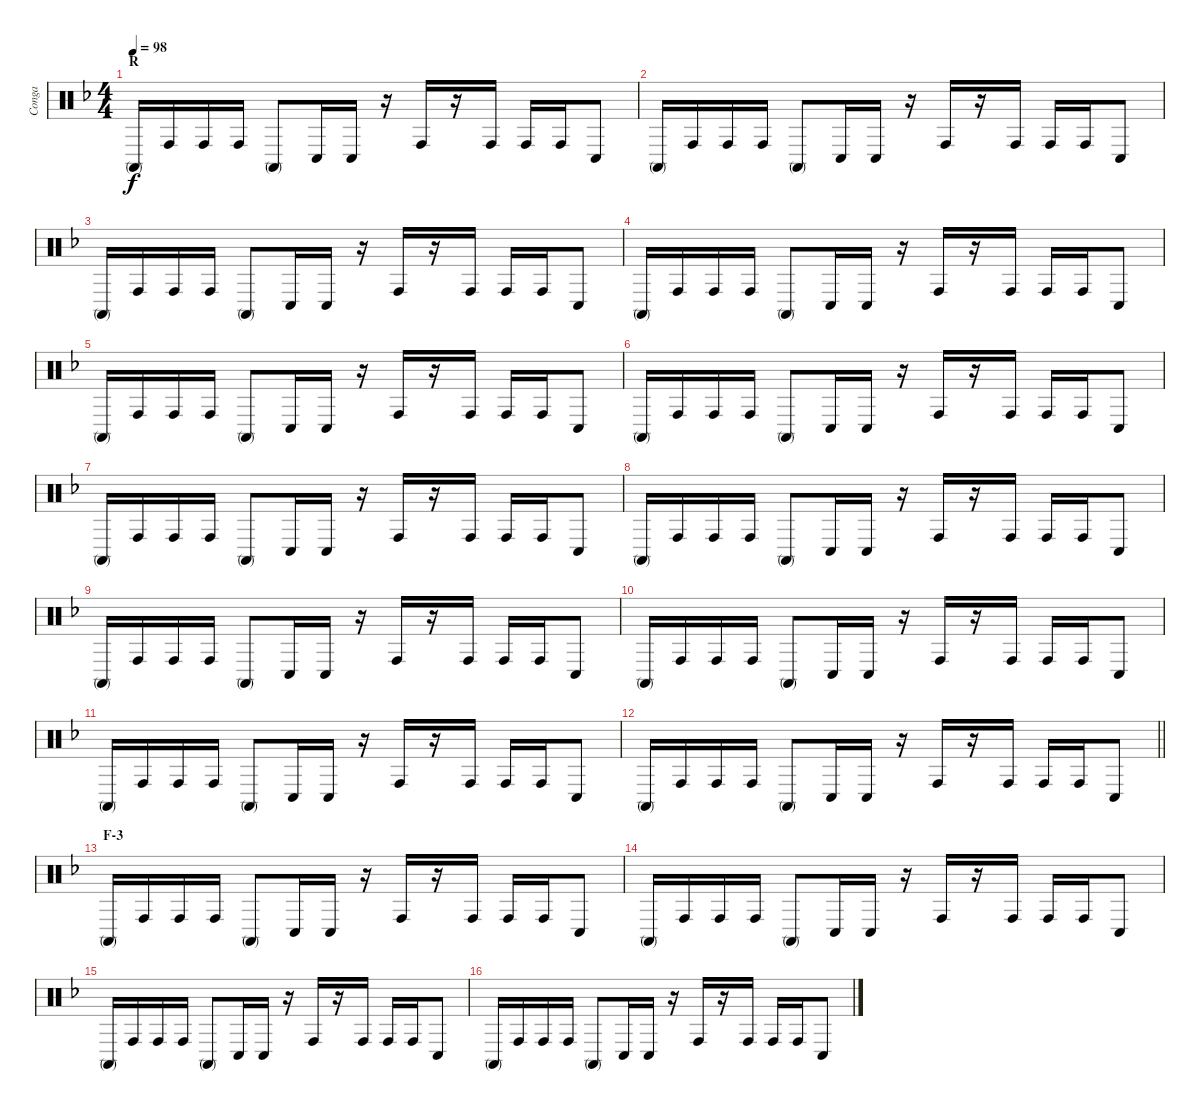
\track ("Conga" "Conga") {instrument percussion}
\staff {score}
\articulation defaults
\ts (4 4)
\section ("" "R")
\tempo 98
\clef neutral
\ks f "Conga high (mute)".16{dy f} "Conga high (hit)".16 "Conga high (hit)".16 "Conga high (hit)".16 "Conga high (mute)".8 "Conga low (hit)".16 "Conga low (hit)".16
r.16 "Conga high (hit)".16 r.16 "Conga high (hit)".16 "Conga high (hit)".16 "Conga high (hit)".16 "Conga low (hit)".8 |
"Conga high (mute)".16 "Conga high (hit)".16 "Conga high (hit)".16 "Conga high (hit)".16 "Conga high (mute)".8 "Conga low (hit)".16 "Conga low (hit)".16 r.16 "Conga high (hit)".16 r.16 "Conga high (hit)".16 "Conga high (hit)".16 "Conga high (hit)".16 "Conga low (hit)".8 |
"Conga high (mute)".16 "Conga high (hit)".16 "Conga high (hit)".16 "Conga high (hit)".16 "Conga high (mute)".8 "Conga low (hit)".16 "Conga low (hit)".16 r.16 "Conga high (hit)".16 r.16 "Conga high (hit)".16 "Conga high (hit)".16 "Conga high (hit)".16 "Conga low (hit)".8 |
"Conga high (mute)".16 "Conga high (hit)".16 "Conga high (hit)".16 "Conga high (hit)".16 "Conga high (mute)".8 "Conga low (hit)".16 "Conga low (hit)".16 r.16 "Conga high (hit)".16 r.16 "Conga high (hit)".16 "Conga high (hit)".16 "Conga high (hit)".16 "Conga low (hit)".8 |
"Conga high (mute)".16 "Conga high (hit)".16 "Conga high (hit)".16 "Conga high (hit)".16 "Conga high (mute)".8 "Conga low (hit)".16 "Conga low (hit)".16 r.16 "Conga high (hit)".16 r.16 "Conga high (hit)".16 "Conga high (hit)".16 "Conga high (hit)".16 "Conga low (hit)".8 |
"Conga high (mute)".16 "Conga high (hit)".16 "Conga high (hit)".16 "Conga high (hit)".16 "Conga high (mute)".8 "Conga low (hit)".16 "Conga low (hit)".16 r.16 "Conga high (hit)".16 r.16 "Conga high (hit)".16 "Conga high (hit)".16 "Conga high (hit)".16 "Conga low (hit)".8 |
"Conga high (mute)".16 "Conga high (hit)".16 "Conga high (hit)".16 "Conga high (hit)".16 "Conga high (mute)".8 "Conga low (hit)".16 "Conga low (hit)".16 r.16 "Conga high (hit)".16 r.16 "Conga high (hit)".16 "Conga high (hit)".16 "Conga high (hit)".16 "Conga low (hit)".8 |
"Conga high (mute)".16 "Conga high (hit)".16 "Conga high (hit)".16 "Conga high (hit)".16 "Conga high (mute)".8 "Conga low (hit)".16 "Conga low (hit)".16 r.16 "Conga high (hit)".16 r.16 "Conga high (hit)".16 "Conga high (hit)".16 "Conga high (hit)".16 "Conga low (hit)".8 |
"Conga high (mute)".16 "Conga high (hit)".16 "Conga high (hit)".16 "Conga high (hit)".16 "Conga high (mute)".8 "Conga low (hit)".16 "Conga low (hit)".16 r.16 "Conga high (hit)".16 r.16 "Conga high (hit)".16 "Conga high (hit)".16 "Conga high (hit)".16 "Conga low (hit)".8 |
"Conga high (mute)".16 "Conga high (hit)".16 "Conga high (hit)".16 "Conga high (hit)".16 "Conga high (mute)".8 "Conga low (hit)".16 "Conga low (hit)".16 r.16 "Conga high (hit)".16 r.16 "Conga high (hit)".16 "Conga high (hit)".16 "Conga high (hit)".16 "Conga low (hit)".8 |
"Conga high (mute)".16 "Conga high (hit)".16 "Conga high (hit)".16 "Conga high (hit)".16 "Conga high (mute)".8 "Conga low (hit)".16 "Conga low (hit)".16 r.16 "Conga high (hit)".16 r.16 "Conga high (hit)".16 "Conga high (hit)".16 "Conga high (hit)".16 "Conga low (hit)".8 |
\barLineRight lightlight "Conga high (mute)".16 "Conga high (hit)".16 "Conga high (hit)".16 "Conga high (hit)".16 "Conga high (mute)".8 "Conga low (hit)".16 "Conga low (hit)".16
r.16 "Conga high (hit)".16 r.16 "Conga high (hit)".16 "Conga high (hit)".16 "Conga high (hit)".16 "Conga low (hit)".8 |
\section ("" "F-3")
"Conga high (mute)".16 "Conga high (hit)".16 "Conga high (hit)".16 "Conga high (hit)".16 "Conga high (mute)".8 "Conga low (hit)".16 "Conga low (hit)".16 r.16 "Conga high (hit)".16 r.16 "Conga high (hit)".16 "Conga high (hit)".16 "Conga high (hit)".16 "Conga low (hit)".8 |
"Conga high (mute)".16 "Conga high (hit)".16 "Conga high (hit)".16 "Conga high (hit)".16 "Conga high (mute)".8 "Conga low (hit)".16 "Conga low (hit)".16 r.16 "Conga high (hit)".16 r.16 "Conga high (hit)".16 "Conga high (hit)".16 "Conga high (hit)".16 "Conga low (hit)".8 |
"Conga high (mute)".16 "Conga high (hit)".16 "Conga high (hit)".16 "Conga high (hit)".16 "Conga high (mute)".8 "Conga low (hit)".16 "Conga low (hit)".16 r.16 "Conga high (hit)".16 r.16 "Conga high (hit)".16 "Conga high (hit)".16 "Conga high (hit)".16 "Conga low (hit)".8 |
"Conga high (mute)".16 "Conga high (hit)".16 "Conga high (hit)".16 "Conga high (hit)".16 "Conga high (mute)".8 "Conga low (hit)".16 "Conga low (hit)".16 r.16 "Conga high (hit)".16 r.16 "Conga high (hit)".16 "Conga high (hit)".16 "Conga high (hit)".16 "Conga low (hit)".8
